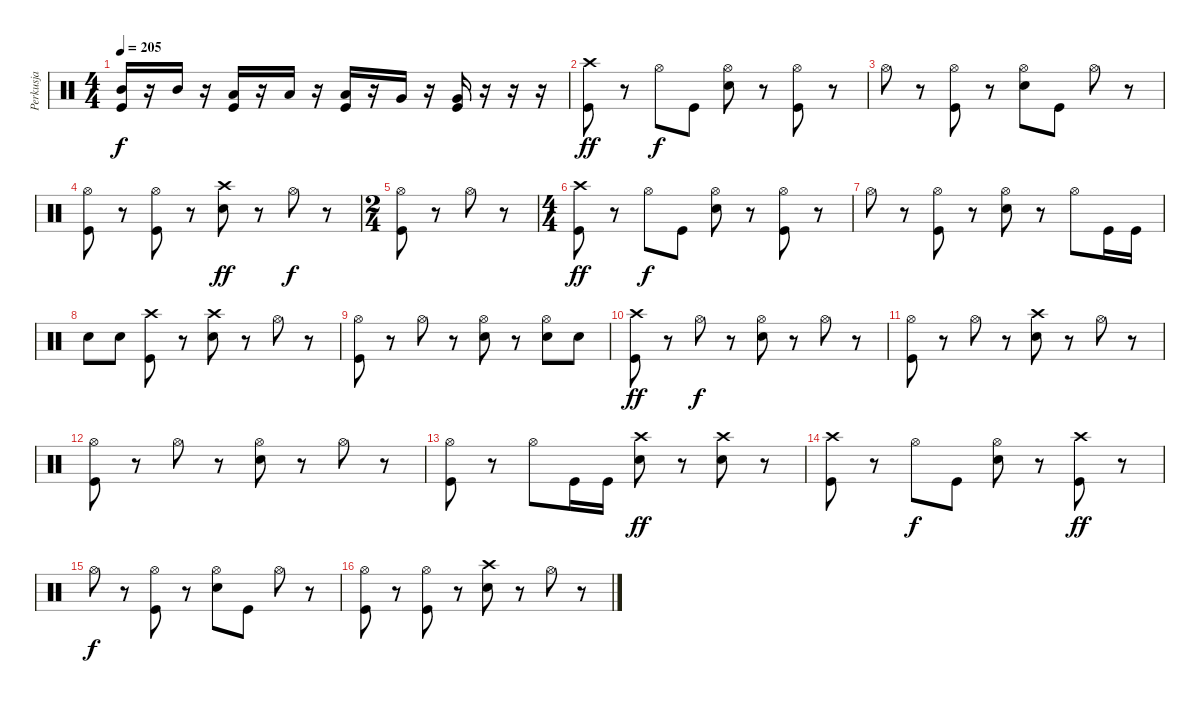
\track ("Perkusja" "Perkusja") {instrument percussion}
\staff {score}
\articulation defaults
\ts (4 4)
\tempo 205
\clef neutral
\ks c
("Mid Tom (hit)" "Kick (hit)").16{dy f} r.16 "Mid Tom (hit)".16 r.16 ("Low Tom (hit)" "Kick (hit)").16 r.16 "Low Tom (hit)".16 r.16 ("Low Tom (hit)" "Kick (hit)").16 r.16 "Very Low Tom (hit)".16 r.16 ("Very Low Tom (hit)" "Kick (hit)").16 r.16 r.16 r.16 |
("Crash high (hit)" "Kick (hit)").8{dy ff} r.8 "Hi-Hat (open)".8{dy f} "Kick (hit)".8 ("Hi-Hat (open)" "Snare (hit) 2").8 r.8 ("Hi-Hat (open)" "Kick (hit)").8 r.8 |
"Hi-Hat (open)".8 r.8 ("Hi-Hat (open)" "Kick (hit)").8 r.8 ("Hi-Hat (open)" "Snare (hit) 2").8 "Kick (hit)".8 "Hi-Hat (open)".8 r.8 |
("Hi-Hat (open)" "Kick (hit)").8 r.8 ("Hi-Hat (open)" "Kick (hit)").8 r.8 ("Crash high (hit)" "Snare (hit) 2").8{dy ff} r.8 "Hi-Hat (open)".8{dy f} r.8 |
\ts (2 4)
("Hi-Hat (open)" "Kick (hit)").8 r.8 "Hi-Hat (open)".8 r.8 |
\ts (4 4)
("Crash high (hit)" "Kick (hit)").8{dy ff} r.8 "Hi-Hat (open)".8{dy f} "Kick (hit)".8 ("Hi-Hat (open)" "Snare (hit) 2").8 r.8 ("Hi-Hat (open)" "Kick (hit)").8 r.8 |
"Hi-Hat (open)".8 r.8 ("Hi-Hat (open)" "Kick (hit)").8 r.8 ("Hi-Hat (open)" "Snare (hit) 2").8 r.8 "Hi-Hat (open)".8 "Kick (hit)".16 "Kick (hit)".16 |
"Snare (hit) 2".8 "Snare (hit) 2".8 ("Crash high (hit)" "Kick (hit)").8 r.8 ("Crash high (hit)" "Snare (hit) 2").8 r.8 "Hi-Hat (open)".8 r.8 |
("Hi-Hat (open)" "Kick (hit)").8 r.8 "Hi-Hat (open)".8 r.8 ("Hi-Hat (open)" "Snare (hit) 2").8 r.8 ("Hi-Hat (open)" "Snare (hit) 2").8 "Snare (hit) 2".8 |
("Crash high (hit)" "Kick (hit)").8{dy ff} r.8 "Hi-Hat (open)".8{dy f} r.8 ("Hi-Hat (open)" "Snare (hit) 2").8 r.8 "Hi-Hat (open)".8 r.8 |
("Hi-Hat (open)" "Kick (hit)").8 r.8 "Hi-Hat (open)".8 r.8 ("Crash high (hit)" "Snare (hit) 2").8 r.8 "Hi-Hat (open)".8 r.8 |
("Hi-Hat (open)" "Kick (hit)").8 r.8 "Hi-Hat (open)".8 r.8 ("Hi-Hat (open)" "Snare (hit) 2").8 r.8 "Hi-Hat (open)".8 r.8 |
("Hi-Hat (open)" "Kick (hit)").8 r.8 "Hi-Hat (open)".8 "Kick (hit)".16 "Kick (hit)".16 ("Crash high (hit)" "Snare (hit) 2").8{dy ff} r.8 ("Crash high (hit)" "Snare (hit) 2").8 r.8 |
("Crash high (hit)" "Kick (hit)").8 r.8 "Hi-Hat (open)".8{dy f} "Kick (hit)".8 ("Hi-Hat (open)" "Snare (hit) 2").8 r.8 ("Crash high (hit)" "Kick (hit)").8{dy ff} r.8 |
"Hi-Hat (open)".8{dy f} r.8 ("Hi-Hat (open)" "Kick (hit)").8 r.8 ("Hi-Hat (open)" "Snare (hit) 2").8 "Kick (hit)".8 "Hi-Hat (open)".8 r.8 |
("Hi-Hat (open)" "Kick (hit)").8 r.8 ("Hi-Hat (open)" "Kick (hit)").8 r.8 ("Crash high (hit)" "Snare (hit) 2").8 r.8 "Hi-Hat (open)".8 r.8
